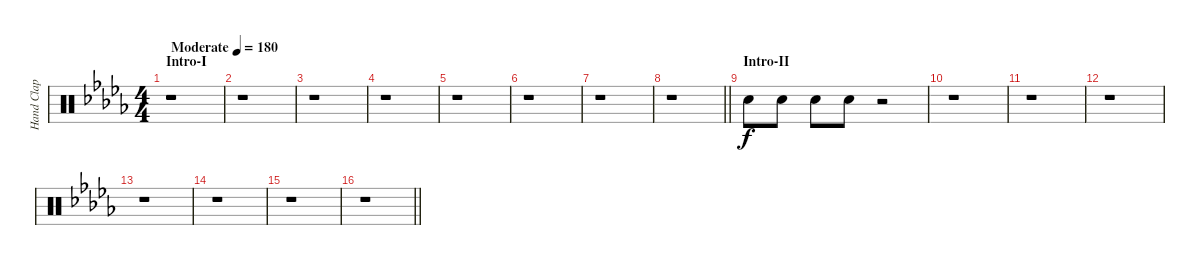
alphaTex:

\track ("Hand Clap" "Hand Clap") {instrument percussion}
\staff {score}
\articulation defaults
\ts (4 4)
\section ("" "Intro-I")
\tempo (180 "Moderate")
\clef neutral
\ks db
r.1{dy f} |
r.1 |
r.1 |
r.1 |
r.1 |
r.1 |
r.1 |
\barLineRight lightlight
r.1 |
\section ("" "Intro-II")
"Hand Clap (hit)".8 "Hand Clap (hit)".8 "Hand Clap (hit)".8 "Hand Clap (hit)".8 r.2 |
r.1 |
r.1 |
r.1 |
r.1 |
r.1 |
r.1 |
\barLineRight lightlight
r.1
